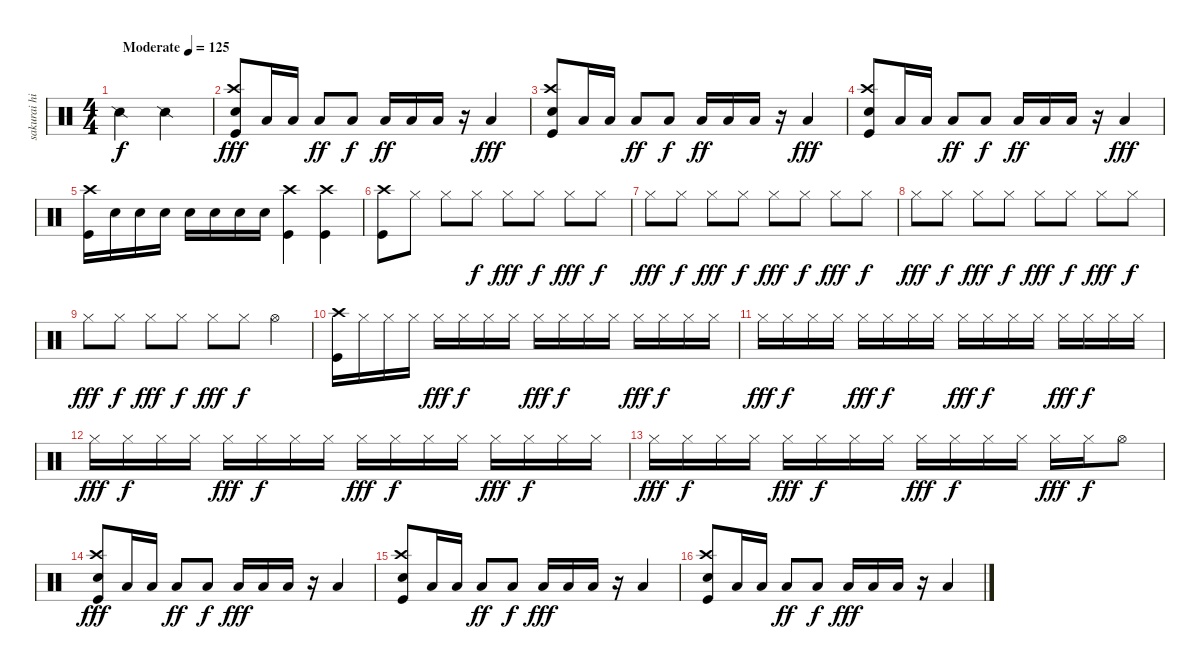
\track ("sakurai hiroshi" "sakurai hi") {instrument percussion}
\staff {score}
\articulation defaults
\ts (4 4)
\tempo (125 "Moderate")
\clef neutral
\ks c "Snare (side stick) 2".2{dy f} "Snare (side stick) 2".2
|
("Kick (hit)" "Crash high (hit)" "Snare (hit) 2").8{dy fff} "Low Floor Tom (hit)".16 "Low Floor Tom (hit)".16 "Low Floor Tom (hit)".8{dy ff} "Low Floor Tom (hit)".8{dy f} "Low Floor Tom (hit)".16{dy ff} "Low Floor Tom (hit)".16 "Low Floor Tom (hit)".16 r.16 "Low Floor Tom (hit)".4{dy fff} |
("Kick (hit)" "Crash high (hit)" "Snare (hit) 2").8 "Low Floor Tom (hit)".16 "Low Floor Tom (hit)".16 "Low Floor Tom (hit)".8{dy ff} "Low Floor Tom (hit)".8{dy f} "Low Floor Tom (hit)".16{dy ff} "Low Floor Tom (hit)".16 "Low Floor Tom (hit)".16 r.16 "Low Floor Tom (hit)".4{dy fff} |
("Kick (hit)" "Crash high (hit)" "Snare (hit) 2").8 "Low Floor Tom (hit)".16 "Low Floor Tom (hit)".16 "Low Floor Tom (hit)".8{dy ff} "Low Floor Tom (hit)".8{dy f} "Low Floor Tom (hit)".16{dy ff} "Low Floor Tom (hit)".16 "Low Floor Tom (hit)".16 r.16 "Low Floor Tom (hit)".4{dy fff} |
("Crash high (hit)" "Kick (hit)").16 "Snare (hit) 2".16 "Snare (hit) 2".16 "Snare (hit) 2".16 "Snare (hit) 2".16 "Snare (hit) 2".16 "Snare (hit) 2".16 "Snare (hit) 2".16 ("Kick (hit)" "Crash high (hit)").4 ("Crash high (hit)" "Kick (hit)").4 |
("Kick (hit)" "Crash high (hit)").8 "Hi-Hat (closed)".8 "Hi-Hat (closed)".8 "Hi-Hat (closed)".8{dy f} "Hi-Hat (closed)".8{dy fff} "Hi-Hat (closed)".8{dy f} "Hi-Hat (closed)".8{dy fff} "Hi-Hat (closed)".8{dy f} |
"Hi-Hat (closed)".8{dy fff} "Hi-Hat (closed)".8{dy f} "Hi-Hat (closed)".8{dy fff} "Hi-Hat (closed)".8{dy f} "Hi-Hat (closed)".8{dy fff} "Hi-Hat (closed)".8{dy f} "Hi-Hat (closed)".8{dy fff} "Hi-Hat (closed)".8{dy f} |
"Hi-Hat (closed)".8{dy fff} "Hi-Hat (closed)".8{dy f} "Hi-Hat (closed)".8{dy fff} "Hi-Hat (closed)".8{dy f} "Hi-Hat (closed)".8{dy fff} "Hi-Hat (closed)".8{dy f} "Hi-Hat (closed)".8{dy fff} "Hi-Hat (closed)".8{dy f} |
"Hi-Hat (closed)".8{dy fff} "Hi-Hat (closed)".8{dy f} "Hi-Hat (closed)".8{dy fff} "Hi-Hat (closed)".8{dy f} "Hi-Hat (closed)".8{dy fff} "Hi-Hat (closed)".8{dy f} "Hi-Hat (open)".4 |
("Kick (hit)" "Crash high (hit)").16 "Hi-Hat (closed)".16 "Hi-Hat (closed)".16 "Hi-Hat (closed)".16 "Hi-Hat (closed)".16{dy fff} "Hi-Hat (closed)".16{dy f} "Hi-Hat (closed)".16 "Hi-Hat (closed)".16 "Hi-Hat (closed)".16{dy fff} "Hi-Hat (closed)".16{dy f} "Hi-Hat (closed)".16 "Hi-Hat (closed)".16 "Hi-Hat (closed)".16{dy fff} "Hi-Hat (closed)".16{dy f} "Hi-Hat (closed)".16 "Hi-Hat (closed)".16 |
"Hi-Hat (closed)".16{dy fff} "Hi-Hat (closed)".16{dy f} "Hi-Hat (closed)".16 "Hi-Hat (closed)".16 "Hi-Hat (closed)".16{dy fff} "Hi-Hat (closed)".16{dy f} "Hi-Hat (closed)".16 "Hi-Hat (closed)".16 "Hi-Hat (closed)".16{dy fff} "Hi-Hat (closed)".16{dy f} "Hi-Hat (closed)".16 "Hi-Hat (closed)".16 "Hi-Hat (closed)".16{dy fff} "Hi-Hat (closed)".16{dy f} "Hi-Hat (closed)".16 "Hi-Hat (closed)".16 |
"Hi-Hat (closed)".16{dy fff} "Hi-Hat (closed)".16{dy f} "Hi-Hat (closed)".16 "Hi-Hat (closed)".16 "Hi-Hat (closed)".16{dy fff} "Hi-Hat (closed)".16{dy f} "Hi-Hat (closed)".16 "Hi-Hat (closed)".16 "Hi-Hat (closed)".16{dy fff} "Hi-Hat (closed)".16{dy f} "Hi-Hat (closed)".16 "Hi-Hat (closed)".16 "Hi-Hat (closed)".16{dy fff} "Hi-Hat (closed)".16{dy f} "Hi-Hat (closed)".16 "Hi-Hat (closed)".16 |
"Hi-Hat (closed)".16{dy fff} "Hi-Hat (closed)".16{dy f} "Hi-Hat (closed)".16 "Hi-Hat (closed)".16 "Hi-Hat (closed)".16{dy fff} "Hi-Hat (closed)".16{dy f} "Hi-Hat (closed)".16 "Hi-Hat (closed)".16 "Hi-Hat (closed)".16{dy fff} "Hi-Hat (closed)".16{dy f} "Hi-Hat (closed)".16 "Hi-Hat (closed)".16 "Hi-Hat (closed)".16{dy fff} "Hi-Hat (closed)".16{dy f} "Hi-Hat (open)".8 |
("Kick (hit)" "Crash high (hit)" "Snare (hit) 2").8{dy fff} "Low Floor Tom (hit)".16 "Low Floor Tom (hit)".16 "Low Floor Tom (hit)".8{dy ff} "Low Floor Tom (hit)".8{dy f} "Low Floor Tom (hit)".16{dy fff} "Low Floor Tom (hit)".16 "Low Floor Tom (hit)".16 r.16 "Low Floor Tom (hit)".4 |
("Kick (hit)" "Crash high (hit)" "Snare (hit) 2").8 "Low Floor Tom (hit)".16 "Low Floor Tom (hit)".16 "Low Floor Tom (hit)".8{dy ff} "Low Floor Tom (hit)".8{dy f} "Low Floor Tom (hit)".16{dy fff} "Low Floor Tom (hit)".16 "Low Floor Tom (hit)".16 r.16 "Low Floor Tom (hit)".4 |
("Kick (hit)" "Crash high (hit)" "Snare (hit) 2").8 "Low Floor Tom (hit)".16 "Low Floor Tom (hit)".16 "Low Floor Tom (hit)".8{dy ff} "Low Floor Tom (hit)".8{dy f} "Low Floor Tom (hit)".16{dy fff} "Low Floor Tom (hit)".16 "Low Floor Tom (hit)".16 r.16 "Low Floor Tom (hit)".4
